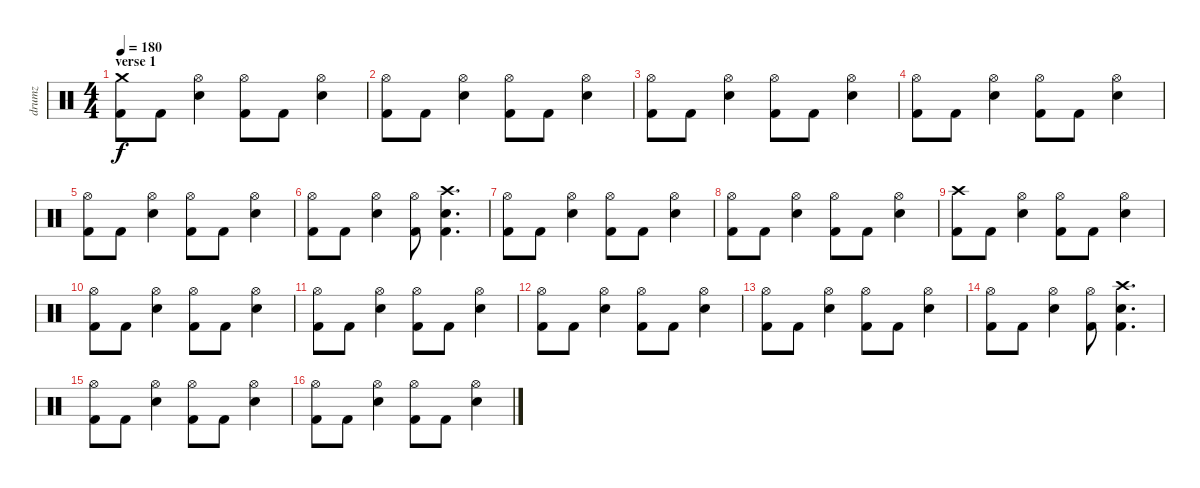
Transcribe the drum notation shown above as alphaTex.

\track ("drumz" "drumz") {instrument percussion}
\staff {score}
\articulation defaults
\ts (4 4)
\section ("" "verse 1")
\tempo 180
\clef neutral
\ks c
("Crash medium (hit)" "Kick (hit) 2").8{dy f} "Kick (hit) 2".8 ("Hi-Hat (open)" "Electric Snare (hit)").4 ("Hi-Hat (open)" "Kick (hit) 2").8 "Kick (hit) 2".8 ("Hi-Hat (open)" "Electric Snare (hit)").4 |
("Hi-Hat (open)" "Kick (hit) 2").8 "Kick (hit) 2".8 ("Hi-Hat (open)" "Electric Snare (hit)").4 ("Hi-Hat (open)" "Kick (hit) 2").8 "Kick (hit) 2".8 ("Hi-Hat (open)" "Electric Snare (hit)").4 |
("Hi-Hat (open)" "Kick (hit) 2").8 "Kick (hit) 2".8 ("Hi-Hat (open)" "Electric Snare (hit)").4 ("Hi-Hat (open)" "Kick (hit) 2").8 "Kick (hit) 2".8 ("Hi-Hat (open)" "Electric Snare (hit)").4 |
("Hi-Hat (open)" "Kick (hit) 2").8 "Kick (hit) 2".8 ("Hi-Hat (open)" "Electric Snare (hit)").4 ("Hi-Hat (open)" "Kick (hit) 2").8 "Kick (hit) 2".8 ("Hi-Hat (open)" "Electric Snare (hit)").4 |
("Hi-Hat (open)" "Kick (hit) 2").8 "Kick (hit) 2".8 ("Hi-Hat (open)" "Electric Snare (hit)").4 ("Hi-Hat (open)" "Kick (hit) 2").8 "Kick (hit) 2".8 ("Hi-Hat (open)" "Electric Snare (hit)").4 |
("Hi-Hat (open)" "Kick (hit) 2").8 "Kick (hit) 2".8 ("Hi-Hat (open)" "Electric Snare (hit)").4 ("Hi-Hat (open)" "Kick (hit) 2").8 ("Crash high (hit)" "Electric Snare (hit)" "Kick (hit) 2").4{d} |
("Hi-Hat (open)" "Kick (hit) 2").8 "Kick (hit) 2".8 ("Hi-Hat (open)" "Electric Snare (hit)").4 ("Hi-Hat (open)" "Kick (hit) 2").8 "Kick (hit) 2".8 ("Hi-Hat (open)" "Electric Snare (hit)").4 |
("Hi-Hat (open)" "Kick (hit) 2").8 "Kick (hit) 2".8 ("Hi-Hat (open)" "Electric Snare (hit)").4 ("Hi-Hat (open)" "Kick (hit) 2").8 "Kick (hit) 2".8 ("Hi-Hat (open)" "Electric Snare (hit)").4 |
("Crash high (hit)" "Kick (hit) 2").8 "Kick (hit) 2".8 ("Hi-Hat (open)" "Electric Snare (hit)").4 ("Hi-Hat (open)" "Kick (hit) 2").8 "Kick (hit) 2".8 ("Hi-Hat (open)" "Electric Snare (hit)").4 |
("Hi-Hat (open)" "Kick (hit) 2").8 "Kick (hit) 2".8 ("Hi-Hat (open)" "Electric Snare (hit)").4 ("Hi-Hat (open)" "Kick (hit) 2").8 "Kick (hit) 2".8 ("Hi-Hat (open)" "Electric Snare (hit)").4 |
("Hi-Hat (open)" "Kick (hit) 2").8 "Kick (hit) 2".8 ("Hi-Hat (open)" "Electric Snare (hit)").4 ("Hi-Hat (open)" "Kick (hit) 2").8 "Kick (hit) 2".8 ("Hi-Hat (open)" "Electric Snare (hit)").4 |
("Hi-Hat (open)" "Kick (hit) 2").8 "Kick (hit) 2".8 ("Hi-Hat (open)" "Electric Snare (hit)").4 ("Hi-Hat (open)" "Kick (hit) 2").8 "Kick (hit) 2".8 ("Hi-Hat (open)" "Electric Snare (hit)").4 |
("Hi-Hat (open)" "Kick (hit) 2").8 "Kick (hit) 2".8 ("Hi-Hat (open)" "Electric Snare (hit)").4 ("Hi-Hat (open)" "Kick (hit) 2").8 "Kick (hit) 2".8 ("Hi-Hat (open)" "Electric Snare (hit)").4 |
("Hi-Hat (open)" "Kick (hit) 2").8 "Kick (hit) 2".8 ("Hi-Hat (open)" "Electric Snare (hit)").4 ("Hi-Hat (open)" "Kick (hit) 2").8 ("Crash high (hit)" "Electric Snare (hit)" "Kick (hit) 2").4{d} |
("Hi-Hat (open)" "Kick (hit) 2").8 "Kick (hit) 2".8 ("Hi-Hat (open)" "Electric Snare (hit)").4 ("Hi-Hat (open)" "Kick (hit) 2").8 "Kick (hit) 2".8 ("Hi-Hat (open)" "Electric Snare (hit)").4 |
("Hi-Hat (open)" "Kick (hit) 2").8 "Kick (hit) 2".8 ("Hi-Hat (open)" "Electric Snare (hit)").4 ("Hi-Hat (open)" "Kick (hit) 2").8 "Kick (hit) 2".8 ("Hi-Hat (open)" "Electric Snare (hit)").4
